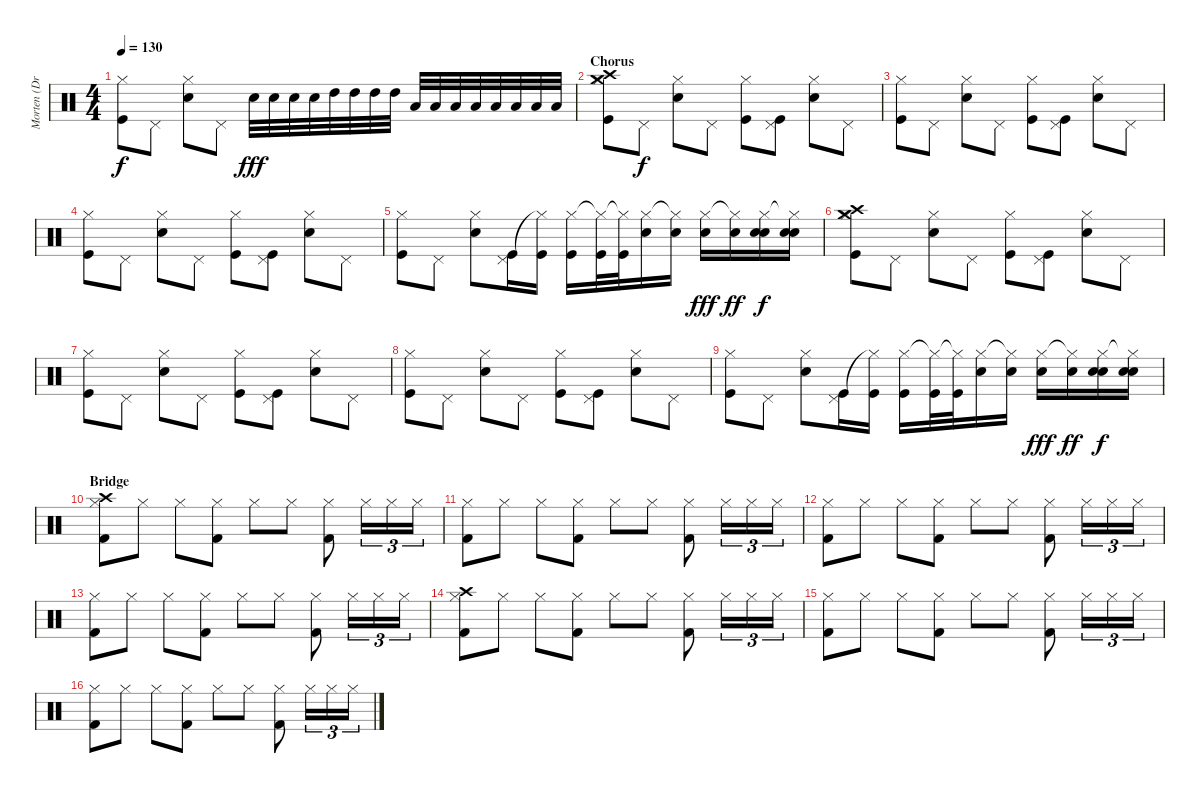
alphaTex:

\track ("Morten (Drums)" "Morten (Dr") {instrument percussion}
\staff {score}
\articulation defaults
\ts (4 4)
\tempo 130
\clef neutral
\ks c
("Hi-Hat (closed)" "Kick (hit)").8{dy f} "Pedal Hi-Hat (hit)".8 ("Hi-Hat (closed)" "Snare (hit) 2").8 "Pedal Hi-Hat (hit)".8 "Snare (hit) 2".32{dy fff} "Snare (hit) 2".32 "Snare (hit) 2".32 "Snare (hit) 2".32 "High Tom (hit)".32 "High Tom (hit)".32 "High Tom (hit)".32 "High Tom (hit)".32 "Low Tom (hit)".32 "Low Tom (hit)".32 "Low Tom (hit)".32 "Low Tom (hit)".32 "Low Floor Tom (hit)".32 "Low Floor Tom (hit)".32 "Low Floor Tom (hit)".32 "Low Floor Tom (hit)".32 |
\section ("" "Chorus")
("Hi-Hat (closed)" "Kick (hit)" "Crash high (hit)" "Crash medium (hit)").8 "Pedal Hi-Hat (hit)".8{dy f} ("Hi-Hat (closed)" "Snare (hit) 2").8 "Pedal Hi-Hat (hit)".8 ("Hi-Hat (closed)" "Kick (hit)").8 ("Pedal Hi-Hat (hit)" "Kick (hit)").8 ("Hi-Hat (closed)" "Snare (hit) 2").8 "Pedal Hi-Hat (hit)".8 |
("Hi-Hat (closed)" "Kick (hit)").8 "Pedal Hi-Hat (hit)".8 ("Hi-Hat (closed)" "Snare (hit) 2").8 "Pedal Hi-Hat (hit)".8 ("Hi-Hat (closed)" "Kick (hit)").8 ("Pedal Hi-Hat (hit)" "Kick (hit)").8 ("Hi-Hat (closed)" "Snare (hit) 2").8 "Pedal Hi-Hat (hit)".8 |
("Hi-Hat (closed)" "Kick (hit)").8 "Pedal Hi-Hat (hit)".8 ("Hi-Hat (closed)" "Snare (hit) 2").8 "Pedal Hi-Hat (hit)".8 ("Hi-Hat (closed)" "Kick (hit)").8 ("Pedal Hi-Hat (hit)" "Kick (hit)").8 ("Hi-Hat (closed)" "Snare (hit) 2").8 "Pedal Hi-Hat (hit)".8 |
("Hi-Hat (closed)" "Kick (hit)").8 "Pedal Hi-Hat (hit)".8 ("Hi-Hat (closed)" "Snare (hit) 2").8 ("Pedal Hi-Hat (hit)" "Kick (hit)").16 ("Hi-Hat (closed)"{t} "Kick (hit)").16 ("Hi-Hat (closed)" "Kick (hit)").16 ("Hi-Hat (closed)"{t} "Kick (hit)").32 ("Hi-Hat (closed)"{t} "Kick (hit)").32 ("Hi-Hat (closed)" "Snare (hit) 2").16 ("Hi-Hat (closed)"{t} "Snare (hit) 2").16 ("Hi-Hat (closed)" "Snare (hit) 2").16{dy fff} ("Hi-Hat (closed)"{t} "Snare (hit) 2").16{dy ff} ("Hi-Hat (closed)" "Snare (hit) 2" "Snare (hit) 2").16{dy f} ("Hi-Hat (closed)"{t} "Snare (hit) 2" "Snare (hit) 2").16 |
("Hi-Hat (closed)" "Kick (hit)" "Crash high (hit)" "Crash medium (hit)").8 "Pedal Hi-Hat (hit)".8 ("Hi-Hat (closed)" "Snare (hit) 2").8 "Pedal Hi-Hat (hit)".8 ("Hi-Hat (closed)" "Kick (hit)").8 ("Pedal Hi-Hat (hit)" "Kick (hit)").8 ("Hi-Hat (closed)" "Snare (hit) 2").8 "Pedal Hi-Hat (hit)".8 |
("Hi-Hat (closed)" "Kick (hit)").8 "Pedal Hi-Hat (hit)".8 ("Hi-Hat (closed)" "Snare (hit) 2").8 "Pedal Hi-Hat (hit)".8 ("Hi-Hat (closed)" "Kick (hit)").8 ("Pedal Hi-Hat (hit)" "Kick (hit)").8 ("Hi-Hat (closed)" "Snare (hit) 2").8 "Pedal Hi-Hat (hit)".8 |
("Hi-Hat (closed)" "Kick (hit)").8 "Pedal Hi-Hat (hit)".8 ("Hi-Hat (closed)" "Snare (hit) 2").8 "Pedal Hi-Hat (hit)".8 ("Hi-Hat (closed)" "Kick (hit)").8 ("Pedal Hi-Hat (hit)" "Kick (hit)").8 ("Hi-Hat (closed)" "Snare (hit) 2").8 "Pedal Hi-Hat (hit)".8 |
("Hi-Hat (closed)" "Kick (hit)").8 "Pedal Hi-Hat (hit)".8 ("Hi-Hat (closed)" "Snare (hit) 2").8 ("Pedal Hi-Hat (hit)" "Kick (hit)").16 ("Hi-Hat (closed)"{t} "Kick (hit)").16 ("Hi-Hat (closed)" "Kick (hit)").16 ("Hi-Hat (closed)"{t} "Kick (hit)").32 ("Hi-Hat (closed)"{t} "Kick (hit)").32 ("Hi-Hat (closed)" "Snare (hit) 2").16 ("Hi-Hat (closed)"{t} "Snare (hit) 2").16 ("Hi-Hat (closed)" "Snare (hit) 2").16{dy fff} ("Hi-Hat (closed)"{t} "Snare (hit) 2").16{dy ff} ("Hi-Hat (closed)" "Snare (hit) 2" "Snare (hit) 2").16{dy f} ("Hi-Hat (closed)"{t} "Snare (hit) 2" "Snare (hit) 2").16 |
\section ("" "Bridge")
("Crash high (hit)" "Hi-Hat (closed)" "Kick (hit) 2").8 "Hi-Hat (closed)".8 "Hi-Hat (closed)".8 ("Hi-Hat (closed)" "Kick (hit) 2").8 "Hi-Hat (closed)".8 "Hi-Hat (closed)".8 ("Hi-Hat (closed)" "Kick (hit) 2").8 "Hi-Hat (closed)".16{tu (3 2)} "Hi-Hat (closed)".16{tu (3 2)} "Hi-Hat (closed)".16{tu (3 2)} |
("Hi-Hat (closed)" "Kick (hit) 2").8 "Hi-Hat (closed)".8 "Hi-Hat (closed)".8 ("Hi-Hat (closed)" "Kick (hit) 2").8 "Hi-Hat (closed)".8 "Hi-Hat (closed)".8 ("Hi-Hat (closed)" "Kick (hit) 2").8 "Hi-Hat (closed)".16{tu (3 2)} "Hi-Hat (closed)".16{tu (3 2)} "Hi-Hat (closed)".16{tu (3 2)} |
("Hi-Hat (closed)" "Kick (hit) 2").8 "Hi-Hat (closed)".8 "Hi-Hat (closed)".8 ("Hi-Hat (closed)" "Kick (hit) 2").8 "Hi-Hat (closed)".8 "Hi-Hat (closed)".8 ("Hi-Hat (closed)" "Kick (hit) 2").8 "Hi-Hat (closed)".16{tu (3 2)} "Hi-Hat (closed)".16{tu (3 2)} "Hi-Hat (closed)".16{tu (3 2)} |
("Hi-Hat (closed)" "Kick (hit) 2").8 "Hi-Hat (closed)".8 "Hi-Hat (closed)".8 ("Hi-Hat (closed)" "Kick (hit) 2").8 "Hi-Hat (closed)".8 "Hi-Hat (closed)".8 ("Hi-Hat (closed)" "Kick (hit) 2").8 "Hi-Hat (closed)".16{tu (3 2)} "Hi-Hat (closed)".16{tu (3 2)} "Hi-Hat (closed)".16{tu (3 2)} |
("Crash high (hit)" "Hi-Hat (closed)" "Kick (hit) 2").8 "Hi-Hat (closed)".8 "Hi-Hat (closed)".8 ("Hi-Hat (closed)" "Kick (hit) 2").8 "Hi-Hat (closed)".8 "Hi-Hat (closed)".8 ("Hi-Hat (closed)" "Kick (hit) 2").8 "Hi-Hat (closed)".16{tu (3 2)} "Hi-Hat (closed)".16{tu (3 2)} "Hi-Hat (closed)".16{tu (3 2)} |
("Hi-Hat (closed)" "Kick (hit) 2").8 "Hi-Hat (closed)".8 "Hi-Hat (closed)".8 ("Hi-Hat (closed)" "Kick (hit) 2").8 "Hi-Hat (closed)".8 "Hi-Hat (closed)".8 ("Hi-Hat (closed)" "Kick (hit) 2").8 "Hi-Hat (closed)".16{tu (3 2)} "Hi-Hat (closed)".16{tu (3 2)} "Hi-Hat (closed)".16{tu (3 2)} |
("Hi-Hat (closed)" "Kick (hit) 2").8 "Hi-Hat (closed)".8 "Hi-Hat (closed)".8 ("Hi-Hat (closed)" "Kick (hit) 2").8 "Hi-Hat (closed)".8 "Hi-Hat (closed)".8 ("Hi-Hat (closed)" "Kick (hit) 2").8 "Hi-Hat (closed)".16{tu (3 2)} "Hi-Hat (closed)".16{tu (3 2)} "Hi-Hat (closed)".16{tu (3 2)}
